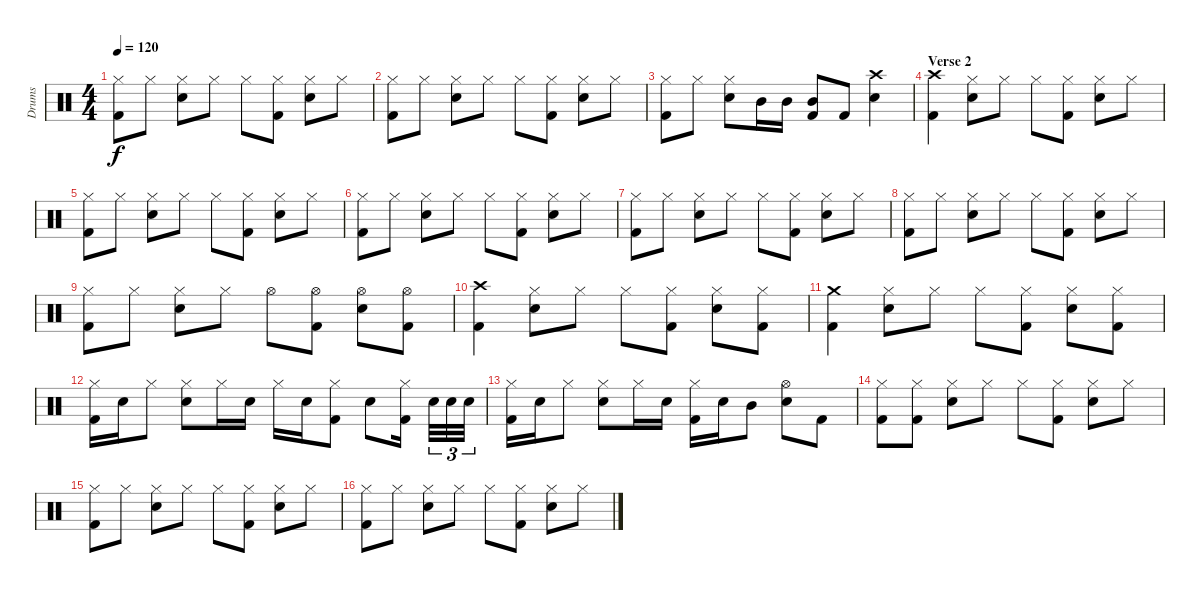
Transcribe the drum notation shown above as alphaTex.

\track ("Drums" "Drums") {instrument percussion}
\staff {score}
\articulation defaults
\ts (4 4)
\tempo 120
\clef neutral
\ks c
("Hi-Hat (closed)" "Kick (hit) 2").8{dy f} "Hi-Hat (closed)".8 ("Hi-Hat (closed)" "Electric Snare (hit)").8 "Hi-Hat (closed)".8 "Hi-Hat (closed)".8 ("Hi-Hat (closed)" "Kick (hit) 2").8 ("Hi-Hat (closed)" "Electric Snare (hit)").8 "Hi-Hat (closed)".8 |
("Hi-Hat (closed)" "Kick (hit) 2").8 "Hi-Hat (closed)".8 ("Hi-Hat (closed)" "Electric Snare (hit)").8 "Hi-Hat (closed)".8 "Hi-Hat (closed)".8 ("Hi-Hat (closed)" "Kick (hit) 2").8 ("Hi-Hat (closed)" "Electric Snare (hit)").8 "Hi-Hat (closed)".8 |
("Hi-Hat (closed)" "Kick (hit) 2").8 "Hi-Hat (closed)".8 ("Hi-Hat (closed)" "Electric Snare (hit)").8 "Mid Tom (hit)".16 "Mid Tom (hit)".16 ("Mid Tom (hit)" "Kick (hit) 2").8 "Kick (hit) 2".8 ("Crash high (hit)" "Electric Snare (hit)").4 |
\section ("" "Verse 2")
("Crash high (hit)" "Kick (hit) 2").4 ("Hi-Hat (closed)" "Electric Snare (hit)").8 "Hi-Hat (closed)".8 "Hi-Hat (closed)".8 ("Hi-Hat (closed)" "Kick (hit) 2").8 ("Hi-Hat (closed)" "Electric Snare (hit)").8 "Hi-Hat (closed)".8 |
("Hi-Hat (closed)" "Kick (hit) 2").8 "Hi-Hat (closed)".8 ("Hi-Hat (closed)" "Electric Snare (hit)").8 "Hi-Hat (closed)".8 "Hi-Hat (closed)".8 ("Hi-Hat (closed)" "Kick (hit) 2").8 ("Hi-Hat (closed)" "Electric Snare (hit)").8 "Hi-Hat (closed)".8 |
("Hi-Hat (closed)" "Kick (hit) 2").8 "Hi-Hat (closed)".8 ("Hi-Hat (closed)" "Electric Snare (hit)").8 "Hi-Hat (closed)".8 "Hi-Hat (closed)".8 ("Hi-Hat (closed)" "Kick (hit) 2").8 ("Hi-Hat (closed)" "Electric Snare (hit)").8 "Hi-Hat (closed)".8 |
("Hi-Hat (closed)" "Kick (hit) 2").8 "Hi-Hat (closed)".8 ("Hi-Hat (closed)" "Electric Snare (hit)").8 "Hi-Hat (closed)".8 "Hi-Hat (closed)".8 ("Hi-Hat (closed)" "Kick (hit) 2").8 ("Hi-Hat (closed)" "Electric Snare (hit)").8 "Hi-Hat (closed)".8 |
("Hi-Hat (closed)" "Kick (hit) 2").8 "Hi-Hat (closed)".8 ("Hi-Hat (closed)" "Electric Snare (hit)").8 "Hi-Hat (closed)".8 "Hi-Hat (closed)".8 ("Hi-Hat (closed)" "Kick (hit) 2").8 ("Hi-Hat (closed)" "Electric Snare (hit)").8 "Hi-Hat (closed)".8 |
("Hi-Hat (closed)" "Kick (hit) 2").8 "Hi-Hat (closed)".8 ("Hi-Hat (closed)" "Electric Snare (hit)").8 "Hi-Hat (closed)".8 "Hi-Hat (open)".8 ("Hi-Hat (open)" "Kick (hit) 2").8 ("Hi-Hat (open)" "Electric Snare (hit)").8 ("Hi-Hat (open)" "Kick (hit) 2").8 |
("Crash high (hit)" "Kick (hit) 2").4 ("Hi-Hat (closed)" "Electric Snare (hit)").8 "Hi-Hat (closed)".8 "Hi-Hat (closed)".8 ("Hi-Hat (closed)" "Kick (hit) 2").8 ("Hi-Hat (closed)" "Electric Snare (hit)").8 ("Hi-Hat (closed)" "Kick (hit) 2").8 |
("Crash medium (hit)" "Kick (hit) 2").4 ("Hi-Hat (closed)" "Electric Snare (hit)").8 "Hi-Hat (closed)".8 "Hi-Hat (closed)".8 ("Hi-Hat (closed)" "Kick (hit) 2").8 ("Hi-Hat (closed)" "Electric Snare (hit)").8 ("Hi-Hat (closed)" "Kick (hit) 2").8 |
("Hi-Hat (closed)" "Kick (hit) 2").16 "Electric Snare (hit)".16 "Hi-Hat (closed)".8 ("Hi-Hat (closed)" "Electric Snare (hit)").8 "Hi-Hat (closed)".16 "Electric Snare (hit)".16 "Hi-Hat (closed)".16 "Electric Snare (hit)".16 ("Hi-Hat (closed)" "Kick (hit) 2").8 "Electric Snare (hit)".8 ("Hi-Hat (closed)" "Kick (hit) 2").16 "Electric Snare (hit)".32{tu (3 2)} "Electric Snare (hit)".32{tu (3 2)} "Electric Snare (hit)".32{tu (3 2)} |
("Hi-Hat (closed)" "Kick (hit) 2").16 "Electric Snare (hit)".16 "Hi-Hat (closed)".8 ("Hi-Hat (closed)" "Electric Snare (hit)").8 "Hi-Hat (closed)".16 "Electric Snare (hit)".16 ("Hi-Hat (closed)" "Kick (hit) 2").16 "Electric Snare (hit)".16 "Mid Tom (hit)".8 ("Hi-Hat (open)" "Electric Snare (hit)").8 "Kick (hit) 2".8 |
("Hi-Hat (closed)" "Kick (hit) 2").8 ("Hi-Hat (closed)" "Kick (hit) 2").8 ("Hi-Hat (closed)" "Electric Snare (hit)").8 "Hi-Hat (closed)".8 "Hi-Hat (closed)".8 ("Hi-Hat (closed)" "Kick (hit) 2").8 ("Hi-Hat (closed)" "Electric Snare (hit)").8 "Hi-Hat (closed)".8 |
("Hi-Hat (closed)" "Kick (hit) 2").8 "Hi-Hat (closed)".8 ("Hi-Hat (closed)" "Electric Snare (hit)").8 "Hi-Hat (closed)".8 "Hi-Hat (closed)".8 ("Hi-Hat (closed)" "Kick (hit) 2").8 ("Hi-Hat (closed)" "Electric Snare (hit)").8 "Hi-Hat (closed)".8 |
("Hi-Hat (closed)" "Kick (hit) 2").8 "Hi-Hat (closed)".8 ("Hi-Hat (closed)" "Electric Snare (hit)").8 "Hi-Hat (closed)".8 "Hi-Hat (closed)".8 ("Hi-Hat (closed)" "Kick (hit) 2").8 ("Hi-Hat (closed)" "Electric Snare (hit)").8 "Hi-Hat (closed)".8
